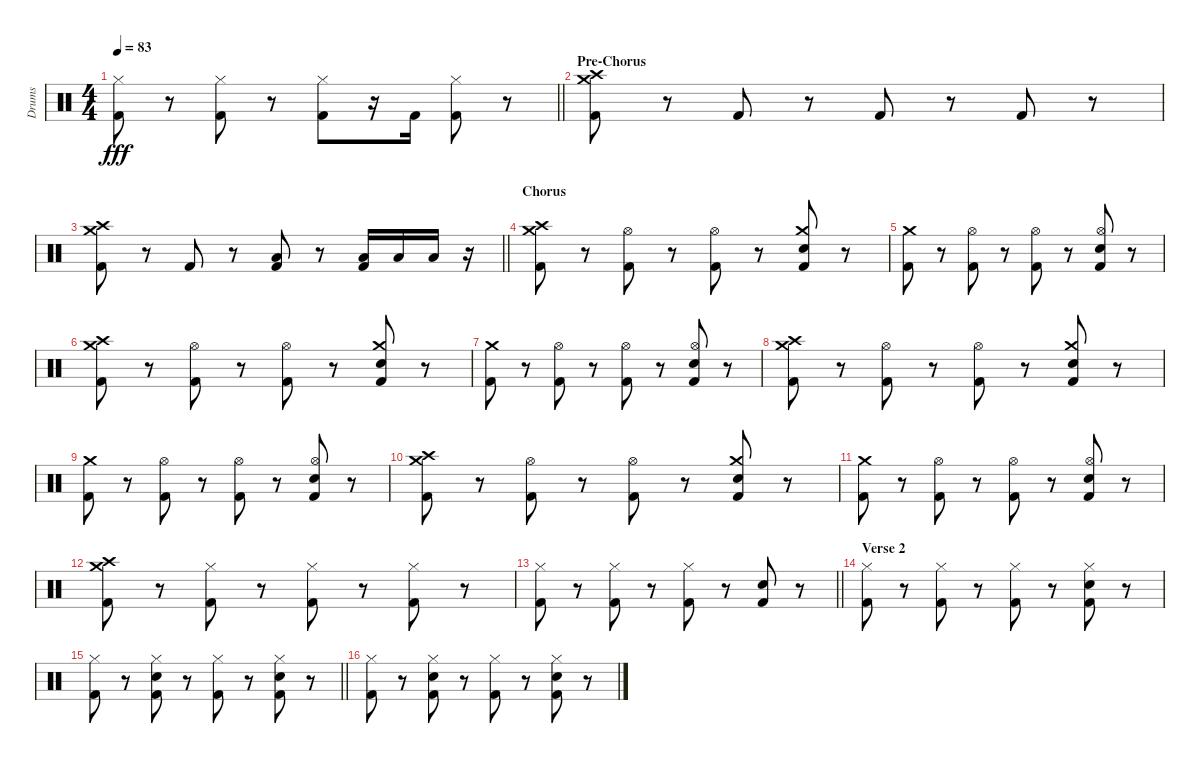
\track ("Drums" "Drums") {instrument percussion}
\staff {score}
\articulation defaults
\ts (4 4)
\tempo 83
\clef neutral
\barLineRight lightlight
\ks c
("Hi-Hat (closed)" "Kick (hit) 2").8{dy fff} r.8 ("Hi-Hat (closed)" "Kick (hit) 2").8 r.8 ("Hi-Hat (closed)" "Kick (hit) 2").8 r.16 "Kick (hit) 2".16 ("Hi-Hat (closed)" "Kick (hit) 2").8 r.8 |
\section ("" "Pre-Chorus")
("Crash high (hit)" "Crash medium (hit)" "Kick (hit) 2").8 r.8 "Kick (hit) 2".8 r.8 "Kick (hit) 2".8 r.8 "Kick (hit) 2".8 r.8 |
\barLineRight lightlight
("Crash high (hit)" "Crash medium (hit)" "Kick (hit) 2").8 r.8 "Kick (hit) 2".8 r.8 ("Low Floor Tom (hit)" "Kick (hit) 2").8 r.8 ("Low Tom (hit)" "Kick (hit) 2").16 "Low Floor Tom (hit)".16 "Low Floor Tom (hit)".16 r.16 |
\section ("" "Chorus")
("Crash medium (hit)" "Crash high (hit)" "Kick (hit) 2").8 r.8 ("Hi-Hat (open)" "Kick (hit) 2").8 r.8 ("Hi-Hat (open)" "Kick (hit) 2").8 r.8 ("Crash medium (hit)" "Snare (hit) 2" "Kick (hit) 2").8 r.8 |
("Crash medium (hit)" "Kick (hit) 2").8 r.8 ("Hi-Hat (open)" "Kick (hit) 2").8 r.8 ("Hi-Hat (open)" "Kick (hit) 2").8 r.8 ("Hi-Hat (open)" "Snare (hit) 2" "Kick (hit) 2").8 r.8 |
("Crash medium (hit)" "Crash high (hit)" "Kick (hit) 2").8 r.8 ("Hi-Hat (open)" "Kick (hit) 2").8 r.8 ("Hi-Hat (open)" "Kick (hit) 2").8 r.8 ("Crash medium (hit)" "Snare (hit) 2" "Kick (hit) 2").8 r.8 |
("Crash medium (hit)" "Kick (hit) 2").8 r.8 ("Hi-Hat (open)" "Kick (hit) 2").8 r.8 ("Hi-Hat (open)" "Kick (hit) 2").8 r.8 ("Hi-Hat (open)" "Snare (hit) 2" "Kick (hit) 2").8 r.8 |
("Crash medium (hit)" "Crash high (hit)" "Kick (hit) 2").8 r.8 ("Hi-Hat (open)" "Kick (hit) 2").8 r.8 ("Hi-Hat (open)" "Kick (hit) 2").8 r.8 ("Crash medium (hit)" "Snare (hit) 2" "Kick (hit) 2").8 r.8 |
("Crash medium (hit)" "Kick (hit) 2").8 r.8 ("Hi-Hat (open)" "Kick (hit) 2").8 r.8 ("Hi-Hat (open)" "Kick (hit) 2").8 r.8 ("Hi-Hat (open)" "Snare (hit) 2" "Kick (hit) 2").8 r.8 |
("Crash medium (hit)" "Crash high (hit)" "Kick (hit) 2").8 r.8 ("Hi-Hat (open)" "Kick (hit) 2").8 r.8 ("Hi-Hat (open)" "Kick (hit) 2").8 r.8 ("Crash medium (hit)" "Snare (hit) 2" "Kick (hit) 2").8 r.8 |
("Crash medium (hit)" "Kick (hit) 2").8 r.8 ("Hi-Hat (open)" "Kick (hit) 2").8 r.8 ("Hi-Hat (open)" "Kick (hit) 2").8 r.8 ("Hi-Hat (open)" "Snare (hit) 2" "Kick (hit) 2").8 r.8 |
("Crash high (hit)" "Crash medium (hit)" "Kick (hit) 2").8 r.8 ("Hi-Hat (closed)" "Kick (hit) 2").8 r.8 ("Hi-Hat (closed)" "Kick (hit) 2").8 r.8 ("Hi-Hat (closed)" "Kick (hit) 2").8 r.8 |
\barLineRight lightlight
("Hi-Hat (closed)" "Kick (hit) 2").8 r.8 ("Hi-Hat (closed)" "Kick (hit) 2").8 r.8 ("Hi-Hat (closed)" "Kick (hit) 2").8 r.8 ("Snare (hit) 2" "Kick (hit) 2").8 r.8 |
\section ("" "Verse 2")
("Hi-Hat (closed)" "Kick (hit) 2").8 r.8 ("Hi-Hat (closed)" "Kick (hit) 2").8 r.8 ("Hi-Hat (closed)" "Kick (hit) 2").8 r.8 ("Hi-Hat (closed)" "Snare (hit) 2" "Kick (hit) 2").8 r.8 |
\barLineRight lightlight
("Hi-Hat (closed)" "Kick (hit) 2").8 r.8 ("Hi-Hat (closed)" "Snare (hit) 2" "Kick (hit) 2").8 r.8 ("Hi-Hat (closed)" "Kick (hit) 2").8 r.8 ("Hi-Hat (closed)" "Snare (hit) 2" "Kick (hit) 2").8 r.8 |
("Hi-Hat (closed)" "Kick (hit) 2").8 r.8 ("Hi-Hat (closed)" "Snare (hit) 2" "Kick (hit) 2").8 r.8 ("Hi-Hat (closed)" "Kick (hit) 2").8 r.8 ("Hi-Hat (closed)" "Snare (hit) 2" "Kick (hit) 2").8 r.8
